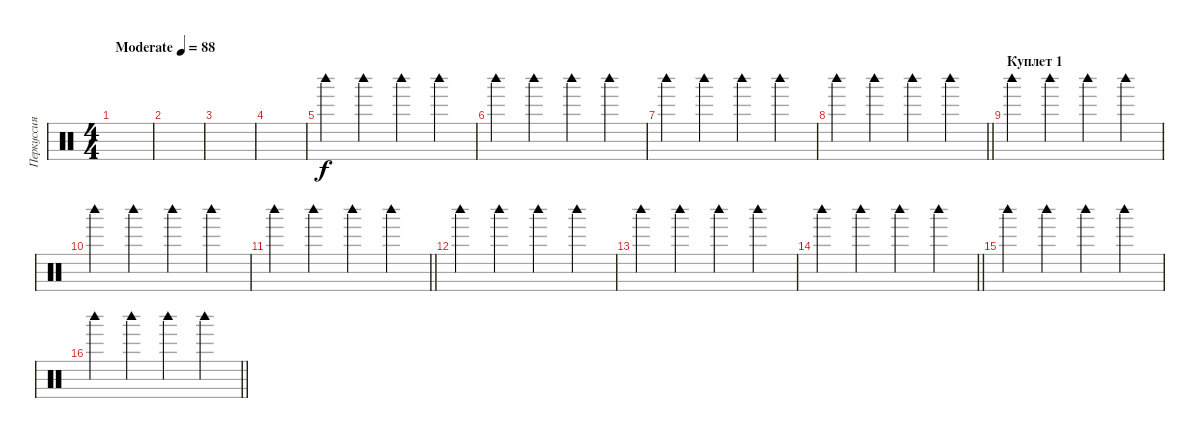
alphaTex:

\track ("Перкуссия 2" "Перкуссия ") {instrument percussion}
\staff {score}
\articulation defaults
\ts (4 4)
\tempo (88 "Moderate")
\clef neutral
\ks c
|
|
|
|
"Woodblock high (hit)".4{volume 7} "Woodblock high (hit)".4 "Woodblock high (hit)".4 "Woodblock high (hit)".4 |
"Woodblock high (hit)".4 "Woodblock high (hit)".4 "Woodblock high (hit)".4 "Woodblock high (hit)".4 |
"Woodblock high (hit)".4 "Woodblock high (hit)".4 "Woodblock high (hit)".4 "Woodblock high (hit)".4 |
\barLineRight lightlight "Woodblock high (hit)".4 "Woodblock high (hit)".4 "Woodblock high (hit)".4 "Woodblock high (hit)".4
|
\section ("" "Куплет 1")
"Woodblock high (hit)".4 "Woodblock high (hit)".4 "Woodblock high (hit)".4 "Woodblock high (hit)".4 |
"Woodblock high (hit)".4 "Woodblock high (hit)".4 "Woodblock high (hit)".4 "Woodblock high (hit)".4 |
\barLineRight lightlight "Woodblock high (hit)".4 "Woodblock high (hit)".4 "Woodblock high (hit)".4 "Woodblock high (hit)".4
|
"Woodblock high (hit)".4 "Woodblock high (hit)".4 "Woodblock high (hit)".4 "Woodblock high (hit)".4 |
"Woodblock high (hit)".4 "Woodblock high (hit)".4 "Woodblock high (hit)".4 "Woodblock high (hit)".4 |
\barLineRight lightlight "Woodblock high (hit)".4 "Woodblock high (hit)".4 "Woodblock high (hit)".4 "Woodblock high (hit)".4
|
"Woodblock high (hit)".4 "Woodblock high (hit)".4 "Woodblock high (hit)".4 "Woodblock high (hit)".4 |
\barLineRight lightlight "Woodblock high (hit)".4 "Woodblock high (hit)".4 "Woodblock high (hit)".4 "Woodblock high (hit)".4
